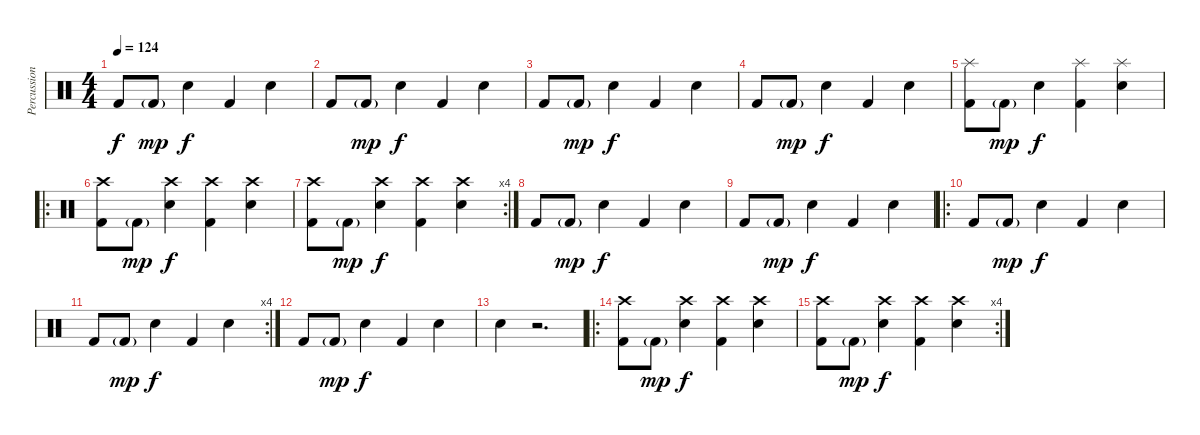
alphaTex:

\track ("Percussion" "Percussion") {instrument percussion}
\staff {score}
\articulation defaults
\ts (4 4)
\tempo 124
\clef neutral
\ks c "Kick (hit) 2".8{dy f} "Kick (hit) 2"{g}.8{dy mp} "Electric Snare (hit)".4{dy f} "Kick (hit) 2".4 "Electric Snare (hit)".4
|
"Kick (hit) 2".8 "Kick (hit) 2"{g}.8{dy mp} "Electric Snare (hit)".4{dy f} "Kick (hit) 2".4 "Electric Snare (hit)".4 |
"Kick (hit) 2".8 "Kick (hit) 2"{g}.8{dy mp} "Electric Snare (hit)".4{dy f} "Kick (hit) 2".4 "Electric Snare (hit)".4 |
"Kick (hit) 2".8 "Kick (hit) 2"{g}.8{dy mp} "Electric Snare (hit)".4{dy f} "Kick (hit) 2".4 "Electric Snare (hit)".4 |
("Kick (hit) 2" "Splash (hit)").8 "Kick (hit) 2"{g}.8{dy mp} "Electric Snare (hit)".4{dy f} ("Kick (hit) 2" "Splash (hit)").4 ("Electric Snare (hit)" "Splash (hit)").4 |
\ro
("Kick (hit) 2" "Crash high (hit)").8 "Kick (hit) 2"{g}.8{dy mp} ("Electric Snare (hit)" "Crash high (hit)").4{dy f} ("Kick (hit) 2" "Crash high (hit)").4 ("Electric Snare (hit)" "Crash high (hit)").4 |
\rc 4
("Kick (hit) 2" "Crash high (hit)").8 "Kick (hit) 2"{g}.8{dy mp} ("Electric Snare (hit)" "Crash high (hit)").4{dy f} ("Kick (hit) 2" "Crash high (hit)").4 ("Electric Snare (hit)" "Crash high (hit)").4 |
"Kick (hit) 2".8 "Kick (hit) 2"{g}.8{dy mp} "Electric Snare (hit)".4{dy f} "Kick (hit) 2".4 "Electric Snare (hit)".4 |
"Kick (hit) 2".8 "Kick (hit) 2"{g}.8{dy mp} "Electric Snare (hit)".4{dy f} "Kick (hit) 2".4 "Electric Snare (hit)".4 |
\ro "Kick (hit) 2".8 "Kick (hit) 2"{g}.8{dy mp} "Electric Snare (hit)".4{dy f} "Kick (hit) 2".4 "Electric Snare (hit)".4
|
\rc 4 "Kick (hit) 2".8 "Kick (hit) 2"{g}.8{dy mp} "Electric Snare (hit)".4{dy f} "Kick (hit) 2".4 "Electric Snare (hit)".4
|
"Kick (hit) 2".8 "Kick (hit) 2"{g}.8{dy mp} "Electric Snare (hit)".4{dy f} "Kick (hit) 2".4 "Electric Snare (hit)".4 |
"Electric Snare (hit)".4 r.2{d} |
\ro
("Kick (hit) 2" "Crash high (hit)").8 "Kick (hit) 2"{g}.8{dy mp} ("Electric Snare (hit)" "Crash high (hit)").4{dy f} ("Kick (hit) 2" "Crash high (hit)").4 ("Electric Snare (hit)" "Crash high (hit)").4 |
\rc 4
("Kick (hit) 2" "Crash high (hit)").8 "Kick (hit) 2"{g}.8{dy mp} ("Electric Snare (hit)" "Crash high (hit)").4{dy f} ("Kick (hit) 2" "Crash high (hit)").4 ("Electric Snare (hit)" "Crash high (hit)").4
